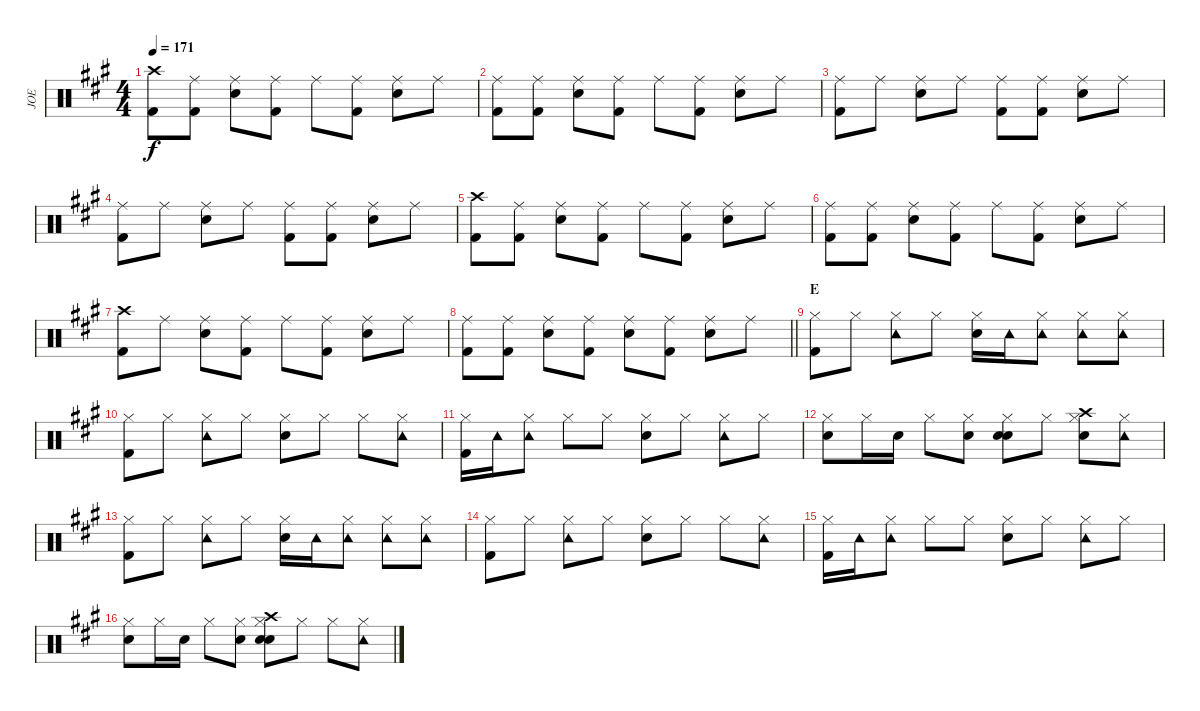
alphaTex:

\track ("JOE" "JOE") {instrument percussion}
\staff {score}
\articulation defaults
\ts (4 4)
\tempo 171
\clef neutral
\ks a
("Crash high (hit)" "Kick (hit) 2").8{dy f} ("Ride (middle)" "Kick (hit) 2").8 ("Ride (middle)" "Snare (hit) 2").8 ("Ride (middle)" "Kick (hit) 2").8 "Ride (middle)".8 ("Ride (middle)" "Kick (hit) 2").8 ("Ride (middle)" "Snare (hit) 2").8 "Ride (middle)".8 |
("Ride (middle)" "Kick (hit) 2").8 ("Ride (middle)" "Kick (hit) 2").8 ("Ride (middle)" "Snare (hit) 2").8 ("Ride (middle)" "Kick (hit) 2").8 "Ride (middle)".8 ("Ride (middle)" "Kick (hit) 2").8 ("Ride (middle)" "Snare (hit) 2").8 "Ride (middle)".8 |
("Ride (middle)" "Kick (hit) 2").8 "Ride (middle)".8 ("Ride (middle)" "Snare (hit) 2").8 "Ride (middle)".8 ("Ride (middle)" "Kick (hit) 2").8 ("Ride (middle)" "Kick (hit) 2").8 ("Ride (middle)" "Snare (hit) 2").8 "Ride (middle)".8 |
("Ride (middle)" "Kick (hit) 2").8 "Ride (middle)".8 ("Ride (middle)" "Snare (hit) 2").8 "Ride (middle)".8 ("Ride (middle)" "Kick (hit) 2").8 ("Ride (middle)" "Kick (hit) 2").8 ("Ride (middle)" "Snare (hit) 2").8 "Ride (middle)".8 |
("Crash high (hit)" "Kick (hit) 2").8 ("Ride (middle)" "Kick (hit) 2").8 ("Ride (middle)" "Snare (hit) 2").8 ("Ride (middle)" "Kick (hit) 2").8 "Ride (middle)".8 ("Ride (middle)" "Kick (hit) 2").8 ("Ride (middle)" "Snare (hit) 2").8 "Ride (middle)".8 |
("Ride (middle)" "Kick (hit) 2").8 ("Ride (middle)" "Kick (hit) 2").8 ("Ride (middle)" "Snare (hit) 2").8 ("Ride (middle)" "Kick (hit) 2").8 "Ride (middle)".8 ("Ride (middle)" "Kick (hit) 2").8 ("Ride (middle)" "Snare (hit) 2").8 "Ride (middle)".8 |
("Crash high (hit)" "Kick (hit) 2").8 "Ride (middle)".8 ("Ride (middle)" "Snare (hit) 2").8 ("Ride (middle)" "Kick (hit) 2").8 "Ride (middle)".8 ("Ride (middle)" "Kick (hit) 2").8 ("Ride (middle)" "Snare (hit) 2").8 "Ride (middle)".8 |
\barLineRight lightlight
("Ride (middle)" "Kick (hit) 2").8 ("Ride (middle)" "Kick (hit) 2").8 ("Ride (middle)" "Snare (hit) 2").8 ("Ride (middle)" "Kick (hit) 2").8 ("Ride (middle)" "Snare (hit) 2").8 ("Ride (middle)" "Kick (hit) 2").8 ("Ride (middle)" "Snare (hit) 2").8 "Ride (middle)".8 |
\section ("" "E")
("Hi-Hat (closed)" "Kick (hit) 2").8 "Hi-Hat (closed)".8 ("Hi-Hat (closed)" "Tambourine (hit)").8 "Hi-Hat (closed)".8 ("Hi-Hat (closed)" "Snare (hit) 2").16 "Tambourine (hit)".16 ("Hi-Hat (closed)" "Tambourine (hit)").8 ("Hi-Hat (closed)" "Tambourine (hit)").8 ("Hi-Hat (closed)" "Tambourine (hit)").8 |
("Hi-Hat (closed)" "Kick (hit) 2").8 "Hi-Hat (closed)".8 ("Hi-Hat (closed)" "Tambourine (hit)").8 "Hi-Hat (closed)".8 ("Hi-Hat (closed)" "Snare (hit) 2").8 "Hi-Hat (closed)".8 "Hi-Hat (closed)".8 ("Hi-Hat (closed)" "Tambourine (hit)").8 |
("Hi-Hat (closed)" "Kick (hit) 2").16 "Tambourine (hit)".16 ("Hi-Hat (closed)" "Tambourine (hit)").8 "Hi-Hat (closed)".8 "Hi-Hat (closed)".8 ("Hi-Hat (closed)" "Snare (hit) 2").8 "Hi-Hat (closed)".8 ("Hi-Hat (closed)" "Tambourine (hit)").8 "Hi-Hat (closed)".8 |
("Hi-Hat (closed)" "Hand Clap (hit)").8 "Hi-Hat (closed)".16 "Hand Clap (hit)".16 "Hi-Hat (closed)".8 ("Hi-Hat (closed)" "Hand Clap (hit)").8 ("Hi-Hat (closed)" "Hand Clap (hit)" "Snare (hit) 2").8 "Hi-Hat (closed)".8 ("Crash high (hit)" "Hi-Hat (closed)" "Hand Clap (hit)").8 ("Hi-Hat (closed)" "Tambourine (hit)").8 |
("Hi-Hat (closed)" "Kick (hit) 2").8 "Hi-Hat (closed)".8 ("Hi-Hat (closed)" "Tambourine (hit)").8 "Hi-Hat (closed)".8 ("Hi-Hat (closed)" "Snare (hit) 2").16 "Tambourine (hit)".16 ("Hi-Hat (closed)" "Tambourine (hit)").8 ("Hi-Hat (closed)" "Tambourine (hit)").8 ("Hi-Hat (closed)" "Tambourine (hit)").8 |
("Hi-Hat (closed)" "Kick (hit) 2").8 "Hi-Hat (closed)".8 ("Hi-Hat (closed)" "Tambourine (hit)").8 "Hi-Hat (closed)".8 ("Hi-Hat (closed)" "Snare (hit) 2").8 "Hi-Hat (closed)".8 "Hi-Hat (closed)".8 ("Hi-Hat (closed)" "Tambourine (hit)").8 |
("Hi-Hat (closed)" "Kick (hit) 2").16 "Tambourine (hit)".16 ("Hi-Hat (closed)" "Tambourine (hit)").8 "Hi-Hat (closed)".8 "Hi-Hat (closed)".8 ("Hi-Hat (closed)" "Snare (hit) 2").8 "Hi-Hat (closed)".8 ("Hi-Hat (closed)" "Tambourine (hit)").8 "Hi-Hat (closed)".8 |
("Hi-Hat (closed)" "Hand Clap (hit)").8 "Hi-Hat (closed)".16 "Hand Clap (hit)".16 "Hi-Hat (closed)".8 ("Hi-Hat (closed)" "Hand Clap (hit)").8 ("Crash high (hit)" "Hi-Hat (closed)" "Hand Clap (hit)" "Snare (hit) 2").8 "Hi-Hat (closed)".8 "Hi-Hat (closed)".8 ("Hi-Hat (closed)" "Tambourine (hit)").8
